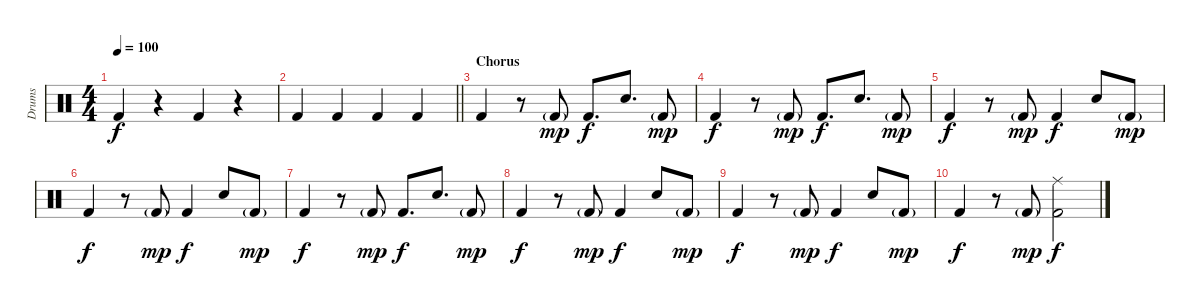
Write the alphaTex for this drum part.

\track ("Drums" "Drums") {instrument percussion}
\staff {score}
\articulation defaults
\ts (4 4)
\tempo 100
\clef neutral
\ks c "Kick (hit) 2".4{dy f}
r.4 "Kick (hit) 2".4 r.4 |
\barLineRight lightlight "Kick (hit) 2".4 "Kick (hit) 2".4 "Kick (hit) 2".4 "Kick (hit) 2".4
|
\section ("" "Chorus")
"Kick (hit) 2".4 r.8 "Kick (hit) 2"{g}.8{dy mp} "Kick (hit) 2".8{d dy f} "Snare (hit) 2".8{d} "Kick (hit) 2"{g}.8{dy mp} |
"Kick (hit) 2".4{dy f} r.8 "Kick (hit) 2"{g}.8{dy mp} "Kick (hit) 2".8{d dy f} "Snare (hit) 2".8{d} "Kick (hit) 2"{g}.8{dy mp} |
"Kick (hit) 2".4{dy f} r.8 "Kick (hit) 2"{g}.8{dy mp} "Kick (hit) 2".4{dy f} "Snare (hit) 2".8 "Kick (hit) 2"{g}.8{dy mp} |
"Kick (hit) 2".4{dy f} r.8 "Kick (hit) 2"{g}.8{dy mp} "Kick (hit) 2".4{dy f} "Snare (hit) 2".8 "Kick (hit) 2"{g}.8{dy mp} |
"Kick (hit) 2".4{dy f} r.8 "Kick (hit) 2"{g}.8{dy mp} "Kick (hit) 2".8{d dy f} "Snare (hit) 2".8{d} "Kick (hit) 2"{g}.8{dy mp} |
"Kick (hit) 2".4{dy f} r.8 "Kick (hit) 2"{g}.8{dy mp} "Kick (hit) 2".4{dy f} "Snare (hit) 2".8 "Kick (hit) 2"{g}.8{dy mp} |
"Kick (hit) 2".4{dy f} r.8 "Kick (hit) 2"{g}.8{dy mp} "Kick (hit) 2".4{dy f} "Snare (hit) 2".8 "Kick (hit) 2"{g}.8{dy mp} |
"Kick (hit) 2".4{dy f} r.8 "Kick (hit) 2"{g}.8{dy mp} ("Ride (middle)" "Kick (hit) 2").2{dy f}
